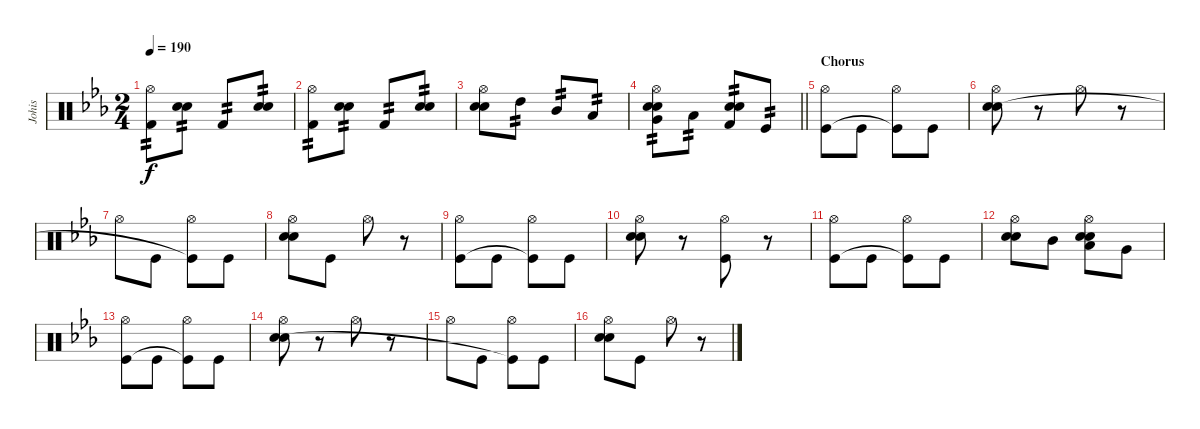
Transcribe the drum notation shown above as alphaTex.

\track ("Johis" "Johis") {instrument percussion}
\staff {score}
\articulation defaults
\ts (2 4)
\tempo 190
\clef neutral
\ks eb
("Hi-Hat (open)" "Kick (hit) 2").8{tp 2 dy f} ("Electric Snare (hit)" "Snare (hit) 2").8{tp 2} "Kick (hit) 2".8{tp 2} ("Electric Snare (hit)" "Snare (hit) 2").8{tp 2} |
("Hi-Hat (open)" "Kick (hit) 2").8{tp 2} ("Electric Snare (hit)" "Snare (hit) 2").8{tp 2} "Kick (hit) 2".8{tp 2} ("Electric Snare (hit)" "Snare (hit) 2").8{tp 2} |
("Hi-Hat (open)" "Snare (hit) 2" "Electric Snare (hit)").8 "High Tom (hit)".8{tp 2} "Mid Tom (hit)".8{tp 2} "Low Tom (hit)".8{tp 2} |
\barLineRight lightlight
("Electric Snare (hit)" "Snare (hit) 2" "Hi-Hat (open)" "Very Low Tom (hit)").8{tp 2} "Low Floor Tom (hit)".8{tp 2} ("Electric Snare (hit)" "Snare (hit) 2" "Kick (hit) 2").8{tp 2} "Kick (hit)".8{tp 2} |
\section ("" "Chorus")
("Hi-Hat (open)" "Kick (hit)").8 "Kick (hit)".8 ("Hi-Hat (open)" "Kick (hit)"{t}).8 "Kick (hit)".8 |
("Hi-Hat (open)" "Snare (hit) 2" "Electric Snare (hit)").8 r.8 "Hi-Hat (open)".8 r.8 |
"Hi-Hat (open)".8 "Kick (hit)".8 ("Hi-Hat (open)" "Kick (hit)"{t}).8 "Kick (hit)".8 |
("Hi-Hat (open)" "Snare (hit) 2" "Electric Snare (hit)").8 "Kick (hit)".8 "Hi-Hat (open)".8 r.8 |
("Hi-Hat (open)" "Kick (hit)").8 "Kick (hit)".8 ("Hi-Hat (open)" "Kick (hit)"{t}).8 "Kick (hit)".8 |
("Hi-Hat (open)" "Snare (hit) 2" "Electric Snare (hit)").8 r.8 ("Hi-Hat (open)" "Kick (hit)").8 r.8 |
("Hi-Hat (open)" "Kick (hit)").8 "Kick (hit)".8 ("Hi-Hat (open)" "Kick (hit)"{t}).8 "Kick (hit)".8 |
("Hi-Hat (open)" "Snare (hit) 2" "Electric Snare (hit)").8 "Mid Tom (hit)".8 ("Hi-Hat (open)" "Snare (hit) 2" "Low Tom (hit)" "Electric Snare (hit)").8 "Very Low Tom (hit)".8 |
("Hi-Hat (open)" "Kick (hit)").8 "Kick (hit)".8 ("Hi-Hat (open)" "Kick (hit)"{t}).8 "Kick (hit)".8 |
("Hi-Hat (open)" "Snare (hit) 2" "Electric Snare (hit)").8 r.8 "Hi-Hat (open)".8 r.8 |
"Hi-Hat (open)".8 "Kick (hit)".8 ("Hi-Hat (open)" "Kick (hit)"{t}).8 "Kick (hit)".8 |
("Hi-Hat (open)" "Snare (hit) 2" "Electric Snare (hit)").8 "Kick (hit)".8 "Hi-Hat (open)".8 r.8
